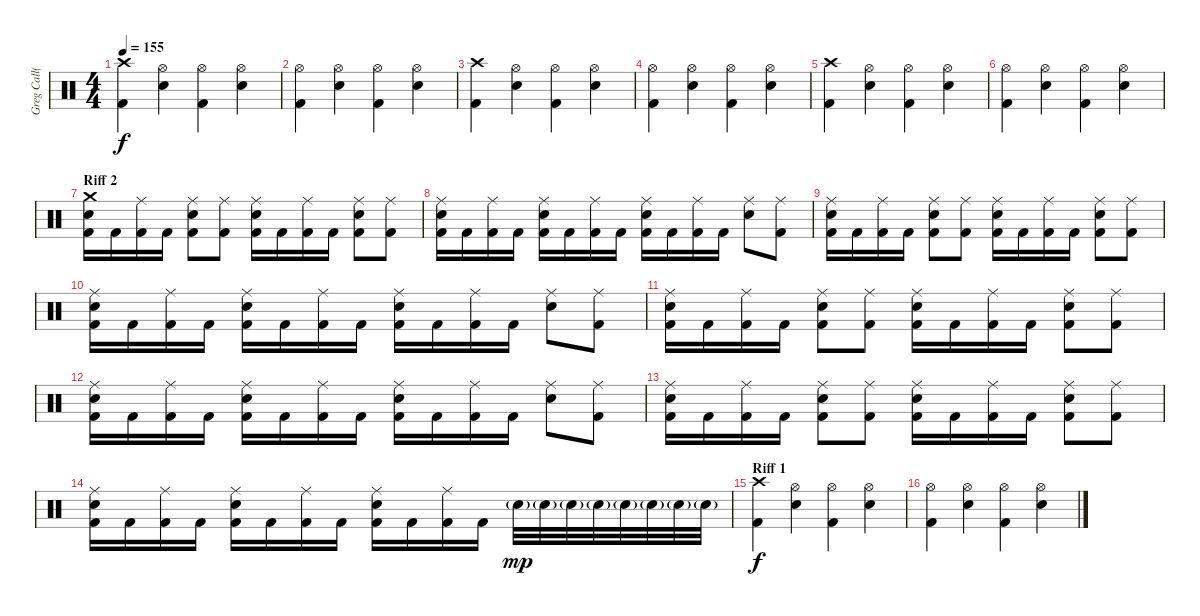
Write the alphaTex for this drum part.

\track ("Greg Call(Drums)" "Greg Call(") {instrument percussion}
\staff {score}
\articulation defaults
\ts (4 4)
\tempo 155
\clef neutral
\ks c
("Kick (hit) 2" "Crash high (hit)").4{dy f} ("Snare (hit) 2" "Hi-Hat (open)").4 ("Kick (hit) 2" "Hi-Hat (open)").4 ("Snare (hit) 2" "Hi-Hat (open)").4 |
("Kick (hit) 2" "Hi-Hat (open)").4 ("Snare (hit) 2" "Hi-Hat (open)").4 ("Kick (hit) 2" "Hi-Hat (open)").4 ("Snare (hit) 2" "Hi-Hat (open)").4 |
("Kick (hit) 2" "Crash high (hit)").4 ("Snare (hit) 2" "Hi-Hat (open)").4 ("Kick (hit) 2" "Hi-Hat (open)").4 ("Snare (hit) 2" "Hi-Hat (open)").4 |
("Kick (hit) 2" "Hi-Hat (open)").4 ("Snare (hit) 2" "Hi-Hat (open)").4 ("Kick (hit) 2" "Hi-Hat (open)").4 ("Snare (hit) 2" "Hi-Hat (open)").4 |
("Kick (hit) 2" "Crash high (hit)").4 ("Snare (hit) 2" "Hi-Hat (open)").4 ("Kick (hit) 2" "Hi-Hat (open)").4 ("Snare (hit) 2" "Hi-Hat (open)").4 |
("Kick (hit) 2" "Hi-Hat (open)").4 ("Snare (hit) 2" "Hi-Hat (open)").4 ("Kick (hit) 2" "Hi-Hat (open)").4 ("Snare (hit) 2" "Hi-Hat (open)").4 |
\section ("" "Riff 2")
("Kick (hit) 2" "Crash medium (hit)" "Snare (hit) 2").16 "Kick (hit) 2".16 ("Ride (middle)" "Kick (hit) 2").16 "Kick (hit) 2".16 ("Kick (hit) 2" "Ride (middle)" "Snare (hit) 2").8 ("Ride (middle)" "Kick (hit) 2").8 ("Kick (hit) 2" "Ride (middle)" "Snare (hit) 2").16 "Kick (hit) 2".16 ("Ride (middle)" "Kick (hit) 2").16 "Kick (hit) 2".16 ("Kick (hit) 2" "Ride (middle)" "Snare (hit) 2").8 ("Ride (middle)" "Kick (hit) 2").8 |
("Kick (hit) 2" "Ride (middle)" "Snare (hit) 2").16 "Kick (hit) 2".16 ("Ride (middle)" "Kick (hit) 2").16 "Kick (hit) 2".16 ("Kick (hit) 2" "Ride (middle)" "Snare (hit) 2").16 "Kick (hit) 2".16 ("Ride (middle)" "Kick (hit) 2").16 "Kick (hit) 2".16 ("Kick (hit) 2" "Ride (middle)" "Snare (hit) 2").16 "Kick (hit) 2".16 ("Ride (middle)" "Kick (hit) 2").16 "Kick (hit) 2".16 ("Ride (middle)" "Snare (hit) 2").8 ("Ride (middle)" "Kick (hit) 2").8 |
("Kick (hit) 2" "Ride (middle)" "Snare (hit) 2").16 "Kick (hit) 2".16 ("Ride (middle)" "Kick (hit) 2").16 "Kick (hit) 2".16 ("Kick (hit) 2" "Ride (middle)" "Snare (hit) 2").8 ("Ride (middle)" "Kick (hit) 2").8 ("Kick (hit) 2" "Ride (middle)" "Snare (hit) 2").16 "Kick (hit) 2".16 ("Ride (middle)" "Kick (hit) 2").16 "Kick (hit) 2".16 ("Kick (hit) 2" "Ride (middle)" "Snare (hit) 2").8 ("Ride (middle)" "Kick (hit) 2").8 |
("Kick (hit) 2" "Ride (middle)" "Snare (hit) 2").16 "Kick (hit) 2".16 ("Ride (middle)" "Kick (hit) 2").16 "Kick (hit) 2".16 ("Kick (hit) 2" "Ride (middle)" "Snare (hit) 2").16 "Kick (hit) 2".16 ("Ride (middle)" "Kick (hit) 2").16 "Kick (hit) 2".16 ("Kick (hit) 2" "Ride (middle)" "Snare (hit) 2").16 "Kick (hit) 2".16 ("Ride (middle)" "Kick (hit) 2").16 "Kick (hit) 2".16 ("Ride (middle)" "Snare (hit) 2").8 ("Ride (middle)" "Kick (hit) 2").8 |
("Kick (hit) 2" "Ride (middle)" "Snare (hit) 2").16 "Kick (hit) 2".16 ("Ride (middle)" "Kick (hit) 2").16 "Kick (hit) 2".16 ("Kick (hit) 2" "Ride (middle)" "Snare (hit) 2").8 ("Ride (middle)" "Kick (hit) 2").8 ("Kick (hit) 2" "Ride (middle)" "Snare (hit) 2").16 "Kick (hit) 2".16 ("Ride (middle)" "Kick (hit) 2").16 "Kick (hit) 2".16 ("Kick (hit) 2" "Ride (middle)" "Snare (hit) 2").8 ("Ride (middle)" "Kick (hit) 2").8 |
("Kick (hit) 2" "Ride (middle)" "Snare (hit) 2").16 "Kick (hit) 2".16 ("Ride (middle)" "Kick (hit) 2").16 "Kick (hit) 2".16 ("Kick (hit) 2" "Ride (middle)" "Snare (hit) 2").16 "Kick (hit) 2".16 ("Ride (middle)" "Kick (hit) 2").16 "Kick (hit) 2".16 ("Kick (hit) 2" "Ride (middle)" "Snare (hit) 2").16 "Kick (hit) 2".16 ("Ride (middle)" "Kick (hit) 2").16 "Kick (hit) 2".16 ("Ride (middle)" "Snare (hit) 2").8 ("Ride (middle)" "Kick (hit) 2").8 |
("Kick (hit) 2" "Ride (middle)" "Snare (hit) 2").16 "Kick (hit) 2".16 ("Ride (middle)" "Kick (hit) 2").16 "Kick (hit) 2".16 ("Kick (hit) 2" "Ride (middle)" "Snare (hit) 2").8 ("Ride (middle)" "Kick (hit) 2").8 ("Kick (hit) 2" "Ride (middle)" "Snare (hit) 2").16 "Kick (hit) 2".16 ("Ride (middle)" "Kick (hit) 2").16 "Kick (hit) 2".16 ("Kick (hit) 2" "Ride (middle)" "Snare (hit) 2").8 ("Ride (middle)" "Kick (hit) 2").8 |
("Kick (hit) 2" "Ride (middle)" "Snare (hit) 2").16 "Kick (hit) 2".16 ("Ride (middle)" "Kick (hit) 2").16 "Kick (hit) 2".16 ("Kick (hit) 2" "Ride (middle)" "Snare (hit) 2").16 "Kick (hit) 2".16 ("Ride (middle)" "Kick (hit) 2").16 "Kick (hit) 2".16 ("Kick (hit) 2" "Ride (middle)" "Snare (hit) 2").16 "Kick (hit) 2".16 ("Ride (middle)" "Kick (hit) 2").16 "Kick (hit) 2".16 "Snare (hit) 2"{g}.32{dy mp} "Snare (hit) 2"{g}.32 "Snare (hit) 2"{g}.32 "Snare (hit) 2"{g}.32 "Snare (hit) 2"{g}.32 "Snare (hit) 2"{g}.32 "Snare (hit) 2"{g}.32 "Snare (hit) 2"{g}.32 |
\section ("" "Riff 1")
("Kick (hit) 2" "Crash high (hit)").4{dy f} ("Snare (hit) 2" "Hi-Hat (open)").4 ("Kick (hit) 2" "Hi-Hat (open)").4 ("Snare (hit) 2" "Hi-Hat (open)").4 |
("Kick (hit) 2" "Hi-Hat (open)").4 ("Snare (hit) 2" "Hi-Hat (open)").4 ("Kick (hit) 2" "Hi-Hat (open)").4 ("Snare (hit) 2" "Hi-Hat (open)").4
